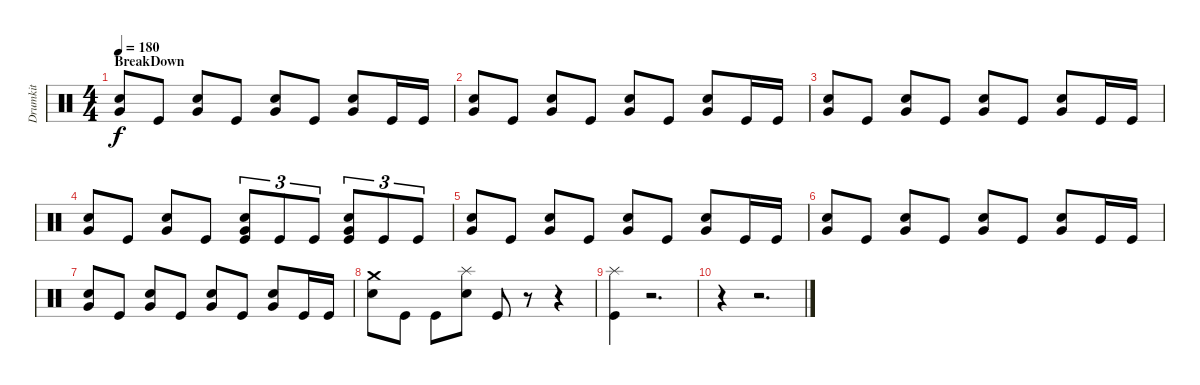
\track ("Drumkit" "Drumkit") {instrument percussion}
\staff {score}
\articulation defaults
\ts (4 4)
\section ("" "BreakDown")
\tempo 180
\clef neutral
\ks c
("Snare (hit) 2" "Very Low Tom (hit)").8{dy f} "Kick (hit)".8 ("Snare (hit) 2" "Very Low Tom (hit)").8 "Kick (hit)".8 ("Snare (hit) 2" "Very Low Tom (hit)").8 "Kick (hit)".8 ("Snare (hit) 2" "Very Low Tom (hit)").8 "Kick (hit)".16 "Kick (hit)".16 |
("Snare (hit) 2" "Very Low Tom (hit)").8 "Kick (hit)".8 ("Snare (hit) 2" "Very Low Tom (hit)").8 "Kick (hit)".8 ("Snare (hit) 2" "Very Low Tom (hit)").8 "Kick (hit)".8 ("Snare (hit) 2" "Very Low Tom (hit)").8 "Kick (hit)".16 "Kick (hit)".16 |
("Snare (hit) 2" "Very Low Tom (hit)").8 "Kick (hit)".8 ("Snare (hit) 2" "Very Low Tom (hit)").8 "Kick (hit)".8 ("Snare (hit) 2" "Very Low Tom (hit)").8 "Kick (hit)".8 ("Snare (hit) 2" "Very Low Tom (hit)").8 "Kick (hit)".16 "Kick (hit)".16 |
("Snare (hit) 2" "Very Low Tom (hit)").8 "Kick (hit)".8 ("Snare (hit) 2" "Very Low Tom (hit)").8 "Kick (hit)".8 ("Snare (hit) 2" "Very Low Tom (hit)" "Kick (hit)").8{tu (3 2)} "Kick (hit)".8{tu (3 2)} "Kick (hit)".8{tu (3 2)} ("Snare (hit) 2" "Very Low Tom (hit)" "Kick (hit)").8{tu (3 2)} "Kick (hit)".8{tu (3 2)} "Kick (hit)".8{tu (3 2)} |
("Snare (hit) 2" "Very Low Tom (hit)").8 "Kick (hit)".8 ("Snare (hit) 2" "Very Low Tom (hit)").8 "Kick (hit)".8 ("Snare (hit) 2" "Very Low Tom (hit)").8 "Kick (hit)".8 ("Snare (hit) 2" "Very Low Tom (hit)").8 "Kick (hit)".16 "Kick (hit)".16 |
("Snare (hit) 2" "Very Low Tom (hit)").8 "Kick (hit)".8 ("Snare (hit) 2" "Very Low Tom (hit)").8 "Kick (hit)".8 ("Snare (hit) 2" "Very Low Tom (hit)").8 "Kick (hit)".8 ("Snare (hit) 2" "Very Low Tom (hit)").8 "Kick (hit)".16 "Kick (hit)".16 |
("Snare (hit) 2" "Very Low Tom (hit)").8 "Kick (hit)".8 ("Snare (hit) 2" "Very Low Tom (hit)").8 "Kick (hit)".8 ("Snare (hit) 2" "Very Low Tom (hit)").8 "Kick (hit)".8 ("Snare (hit) 2" "Very Low Tom (hit)").8 "Kick (hit)".16 "Kick (hit)".16 |
("Crash medium (hit)" "Snare (hit) 2").8 "Kick (hit)".8 "Kick (hit)".8 ("Splash (hit)" "Snare (hit) 2").8 "Kick (hit)".8 r.8 r.4 |
("Splash (hit)" "Kick (hit)").4 r.2{d} |
r.4 r.2{d}
